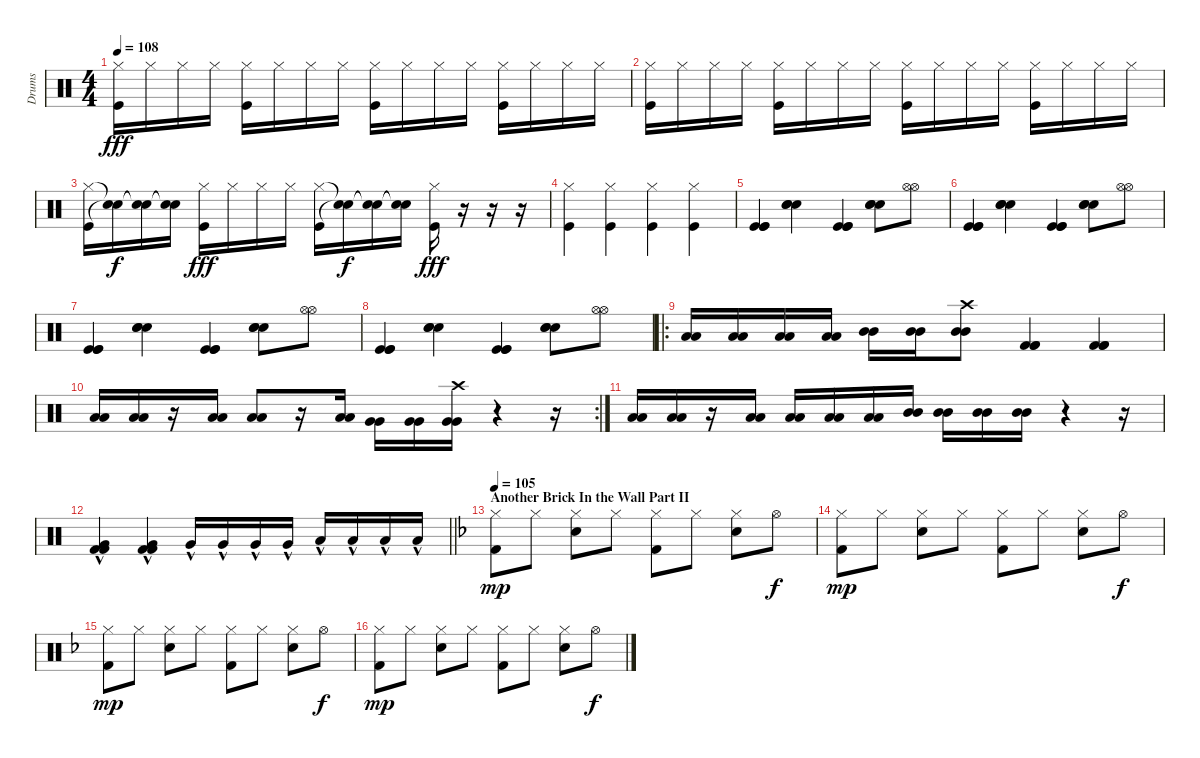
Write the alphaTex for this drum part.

\track ("Drums" "Drums") {instrument percussion}
\staff {score}
\articulation defaults
\ts (4 4)
\tempo 108
\clef neutral
\ks c
("Hi-Hat (closed)" "Kick (hit)").16{dy fff} "Hi-Hat (closed)".16 "Hi-Hat (closed)".16 "Hi-Hat (closed)".16 ("Hi-Hat (closed)" "Kick (hit)").16 "Hi-Hat (closed)".16 "Hi-Hat (closed)".16 "Hi-Hat (closed)".16 ("Hi-Hat (closed)" "Kick (hit)").16 "Hi-Hat (closed)".16 "Hi-Hat (closed)".16 "Hi-Hat (closed)".16 ("Hi-Hat (closed)" "Kick (hit)").16 "Hi-Hat (closed)".16 "Hi-Hat (closed)".16 "Hi-Hat (closed)".16 |
("Hi-Hat (closed)" "Kick (hit)").16 "Hi-Hat (closed)".16 "Hi-Hat (closed)".16 "Hi-Hat (closed)".16 ("Hi-Hat (closed)" "Kick (hit)").16 "Hi-Hat (closed)".16 "Hi-Hat (closed)".16 "Hi-Hat (closed)".16 ("Hi-Hat (closed)" "Kick (hit)").16 "Hi-Hat (closed)".16 "Hi-Hat (closed)".16 "Hi-Hat (closed)".16 ("Hi-Hat (closed)" "Kick (hit)").16 "Hi-Hat (closed)".16 "Hi-Hat (closed)".16 "Hi-Hat (closed)".16 |
("Hi-Hat (closed)" "Kick (hit)").16 ("Snare (hit)"{t} "Snare (hit)"{t}).16{dy f} ("Snare (hit)"{t} "Snare (hit)"{t}).16 ("Snare (hit)"{t} "Snare (hit)"{t}).16 ("Hi-Hat (closed)" "Kick (hit)").16{dy fff} "Hi-Hat (closed)".16 "Hi-Hat (closed)".16 "Hi-Hat (closed)".16 ("Hi-Hat (closed)" "Kick (hit)").16 ("Snare (hit)"{t} "Snare (hit)"{t}).16{dy f} ("Snare (hit)"{t} "Snare (hit)"{t}).16 ("Snare (hit)"{t} "Snare (hit)"{t}).16 ("Hi-Hat (closed)" "Kick (hit)").16{dy fff} r.16 r.16 r.16 |
("Hi-Hat (closed)" "Kick (hit)").4 ("Hi-Hat (closed)" "Kick (hit)").4 ("Hi-Hat (closed)" "Kick (hit)").4 ("Hi-Hat (closed)" "Kick (hit)").4 |
("Kick (hit)" "Kick (hit)" "Kick (hit)").4 ("Snare (hit) 2" "Snare (hit) 2" "Snare (hit) 2").4 ("Kick (hit)" "Kick (hit)" "Kick (hit)").4 ("Snare (hit) 2" "Snare (hit) 2" "Snare (hit) 2").8 ("Hi-Hat (open)" "Hi-Hat (open)").8 |
("Kick (hit)" "Kick (hit)" "Kick (hit)").4 ("Snare (hit) 2" "Snare (hit) 2" "Snare (hit) 2").4 ("Kick (hit)" "Kick (hit)" "Kick (hit)").4 ("Snare (hit) 2" "Snare (hit) 2" "Snare (hit) 2").8 ("Hi-Hat (open)" "Hi-Hat (open)").8 |
("Kick (hit)" "Kick (hit)" "Kick (hit)").4 ("Snare (hit) 2" "Snare (hit) 2" "Snare (hit) 2").4 ("Kick (hit)" "Kick (hit)" "Kick (hit)").4 ("Snare (hit) 2" "Snare (hit) 2" "Snare (hit) 2").8 ("Hi-Hat (open)" "Hi-Hat (open)").8 |
("Kick (hit)" "Kick (hit)" "Kick (hit)").4 ("Snare (hit) 2" "Snare (hit) 2" "Snare (hit) 2").4 ("Kick (hit)" "Kick (hit)" "Kick (hit)").4 ("Snare (hit) 2" "Snare (hit) 2" "Snare (hit) 2").8 ("Hi-Hat (open)" "Hi-Hat (open)").8 |
\ro
("Low Tom (hit)" "Low Tom (hit)").16 ("Low Tom (hit)" "Low Tom (hit)").16 ("Low Tom (hit)" "Low Tom (hit)").16 ("Low Tom (hit)" "Low Tom (hit)").16 ("Mid Tom (hit)" "Mid Tom (hit)").16 ("Mid Tom (hit)" "Mid Tom (hit)").16 ("Mid Tom (hit)" "Crash high (hit)" "Mid Tom (hit)").8 ("Kick (hit) 2" "Kick (hit) 2" "Kick (hit) 2").4 ("Kick (hit) 2" "Kick (hit) 2" "Kick (hit) 2").4 |
\rc 2
("Low Floor Tom (hit)" "Low Floor Tom (hit)").16 ("Low Floor Tom (hit)" "Low Floor Tom (hit)").16 r.16 ("Low Floor Tom (hit)" "Low Floor Tom (hit)").16 ("Low Floor Tom (hit)" "Low Floor Tom (hit)").8 r.16 ("Low Floor Tom (hit)" "Low Floor Tom (hit)").16 ("Very Low Tom (hit)" "Very Low Tom (hit)").16 ("Very Low Tom (hit)" "Very Low Tom (hit)").16 ("Very Low Tom (hit)" "Very Low Tom (hit)" "Crash high (hit)").16 r.4 r.16 |
("Low Tom (hit)" "Low Tom (hit)").16 ("Low Tom (hit)" "Low Tom (hit)").16 r.16 ("Low Tom (hit)" "Low Tom (hit)").16 ("Low Tom (hit)" "Low Tom (hit)").16 ("Low Tom (hit)" "Low Tom (hit)").16 ("Low Tom (hit)" "Low Tom (hit)").16 ("Mid Tom (hit)" "Mid Tom (hit)").16 ("Mid Tom (hit)" "Mid Tom (hit)").16 ("Mid Tom (hit)" "Mid Tom (hit)").16 ("Mid Tom (hit)" "Mid Tom (hit)").16 r.4 r.16 |
\barLineRight lightlight
("Kick (hit) 2"{hac} "Kick (hit) 2" "Very Low Tom (hit)"{hac}).4 ("Kick (hit) 2"{hac} "Kick (hit) 2" "Very Low Tom (hit)"{hac}).4 "Very Low Tom (hit)"{hac}.16 "Very Low Tom (hit)"{hac}.16 "Very Low Tom (hit)"{hac}.16 "Very Low Tom (hit)"{hac}.16 "Low Floor Tom (hit)"{hac}.16 "Low Floor Tom (hit)"{hac}.16 "Low Floor Tom (hit)"{hac}.16 "Low Floor Tom (hit)"{hac}.16 |
\section ("" "Another Brick In the Wall Part II")
\tempo 105
\ks dminor
("Hi-Hat (closed)" "Kick (hit) 2").8{dy mp} "Hi-Hat (closed)".8 ("Hi-Hat (closed)" "Snare (hit) 2").8 "Hi-Hat (closed)".8 ("Hi-Hat (closed)" "Kick (hit) 2").8 "Hi-Hat (closed)".8 ("Hi-Hat (closed)" "Snare (hit) 2").8 "Hi-Hat (open)".8{dy f} |
("Hi-Hat (closed)" "Kick (hit) 2").8{dy mp} "Hi-Hat (closed)".8 ("Hi-Hat (closed)" "Snare (hit) 2").8 "Hi-Hat (closed)".8 ("Hi-Hat (closed)" "Kick (hit) 2").8 "Hi-Hat (closed)".8 ("Hi-Hat (closed)" "Snare (hit) 2").8 "Hi-Hat (open)".8{dy f} |
("Hi-Hat (closed)" "Kick (hit) 2").8{dy mp} "Hi-Hat (closed)".8 ("Hi-Hat (closed)" "Snare (hit) 2").8 "Hi-Hat (closed)".8 ("Hi-Hat (closed)" "Kick (hit) 2").8 "Hi-Hat (closed)".8 ("Hi-Hat (closed)" "Snare (hit) 2").8 "Hi-Hat (open)".8{dy f} |
("Hi-Hat (closed)" "Kick (hit) 2").8{dy mp} "Hi-Hat (closed)".8 ("Hi-Hat (closed)" "Snare (hit) 2").8 "Hi-Hat (closed)".8 ("Hi-Hat (closed)" "Kick (hit) 2").8 "Hi-Hat (closed)".8 ("Hi-Hat (closed)" "Snare (hit) 2").8 "Hi-Hat (open)".8{dy f}
